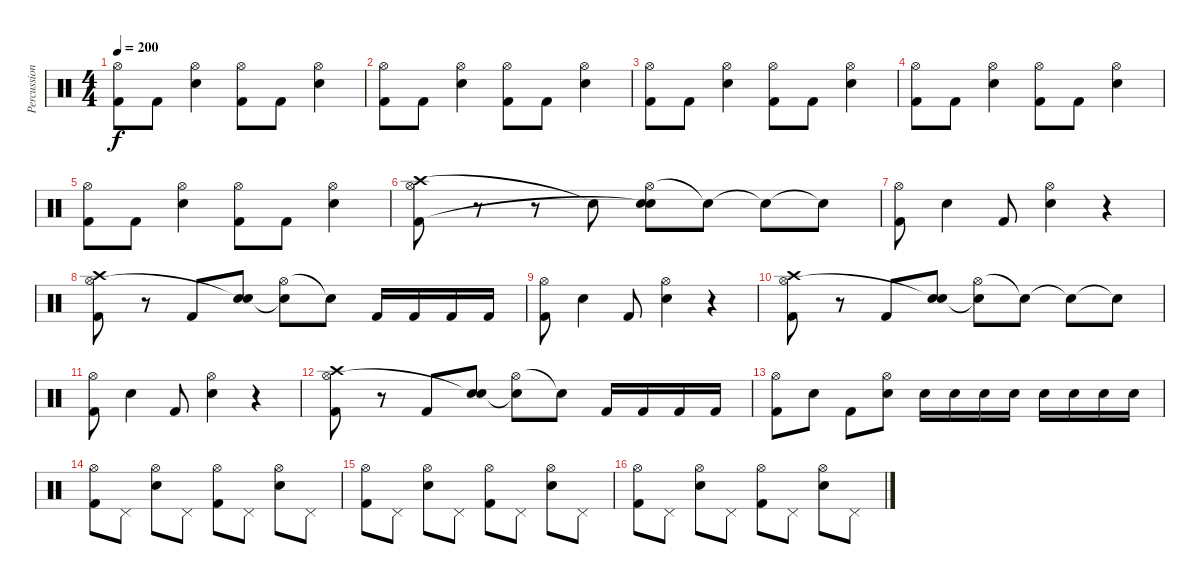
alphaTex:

\track ("Percussion" "Percussion") {instrument percussion}
\staff {score}
\articulation defaults
\ts (4 4)
\tempo 200
\clef neutral
\ks c
("Hi-Hat (open)" "Kick (hit) 2").8{dy f} "Kick (hit) 2".8 ("Hi-Hat (open)" "Electric Snare (hit)").4 ("Hi-Hat (open)" "Kick (hit) 2").8 "Kick (hit) 2".8 ("Hi-Hat (open)" "Electric Snare (hit)").4 |
("Hi-Hat (open)" "Kick (hit) 2").8 "Kick (hit) 2".8 ("Hi-Hat (open)" "Electric Snare (hit)").4 ("Hi-Hat (open)" "Kick (hit) 2").8 "Kick (hit) 2".8 ("Hi-Hat (open)" "Electric Snare (hit)").4 |
("Hi-Hat (open)" "Kick (hit) 2").8 "Kick (hit) 2".8 ("Hi-Hat (open)" "Electric Snare (hit)").4 ("Hi-Hat (open)" "Kick (hit) 2").8 "Kick (hit) 2".8 ("Hi-Hat (open)" "Electric Snare (hit)").4 |
("Hi-Hat (open)" "Kick (hit) 2").8 "Kick (hit) 2".8 ("Hi-Hat (open)" "Electric Snare (hit)").4 ("Hi-Hat (open)" "Kick (hit) 2").8 "Kick (hit) 2".8 ("Hi-Hat (open)" "Electric Snare (hit)").4 |
("Hi-Hat (open)" "Kick (hit) 2").8 "Kick (hit) 2".8 ("Hi-Hat (open)" "Electric Snare (hit)").4 ("Hi-Hat (open)" "Kick (hit) 2").8 "Kick (hit) 2".8 ("Hi-Hat (open)" "Electric Snare (hit)").4 |
("Crash high (hit)" "Hi-Hat (open)" "Kick (hit) 2").8 r.8 r.8 "Electric Snare (hit)"{t}.8 ("Hi-Hat (open)" "Electric Snare (hit)" "Snare (hit)"{t}).8 "Snare (hit)"{t}.8 "Snare (hit)"{t}.8 "Snare (hit)"{t}.8 |
("Hi-Hat (open)" "Kick (hit) 2").8 "Electric Snare (hit)".4 "Kick (hit) 2".8 ("Hi-Hat (open)" "Electric Snare (hit)").4 r.4 |
("Crash high (hit)" "Hi-Hat (open)" "Kick (hit) 2").8 r.8 "Kick (hit) 2".8 ("Electric Snare (hit)" "Electric Snare (hit)"{t}).8 ("Hi-Hat (open)" "Snare (hit)"{t}).8 "Snare (hit)"{t}.8 "Kick (hit) 2".16 "Kick (hit) 2".16 "Kick (hit) 2".16 "Kick (hit) 2".16 |
("Hi-Hat (open)" "Kick (hit) 2").8 "Electric Snare (hit)".4 "Kick (hit) 2".8 ("Hi-Hat (open)" "Electric Snare (hit)").4 r.4 |
("Crash high (hit)" "Hi-Hat (open)" "Kick (hit) 2").8 r.8 "Kick (hit) 2".8 ("Electric Snare (hit)" "Electric Snare (hit)"{t}).8 ("Hi-Hat (open)" "Snare (hit)"{t}).8 "Snare (hit)"{t}.8 "Snare (hit)"{t}.8 "Snare (hit)"{t}.8 |
("Hi-Hat (open)" "Kick (hit) 2").8 "Electric Snare (hit)".4 "Kick (hit) 2".8 ("Hi-Hat (open)" "Electric Snare (hit)").4 r.4 |
("Crash high (hit)" "Hi-Hat (open)" "Kick (hit) 2").8 r.8 "Kick (hit) 2".8 ("Electric Snare (hit)" "Electric Snare (hit)"{t}).8 ("Hi-Hat (open)" "Snare (hit)"{t}).8 "Snare (hit)"{t}.8 "Kick (hit) 2".16 "Kick (hit) 2".16 "Kick (hit) 2".16 "Kick (hit) 2".16 |
("Hi-Hat (open)" "Kick (hit) 2").8 "Electric Snare (hit)".8 "Kick (hit) 2".8 ("Hi-Hat (open)" "Electric Snare (hit)").8 "Electric Snare (hit)".16 "Electric Snare (hit)".16 "Electric Snare (hit)".16 "Electric Snare (hit)".16 "Electric Snare (hit)".16 "Electric Snare (hit)".16 "Electric Snare (hit)".16 "Electric Snare (hit)".16 |
("Hi-Hat (open)" "Kick (hit) 2").8 "Pedal Hi-Hat (hit)".8 ("Hi-Hat (open)" "Electric Snare (hit)").8 "Pedal Hi-Hat (hit)".8 ("Hi-Hat (open)" "Kick (hit) 2").8 "Pedal Hi-Hat (hit)".8 ("Hi-Hat (open)" "Electric Snare (hit)").8 "Pedal Hi-Hat (hit)".8 |
("Hi-Hat (open)" "Kick (hit) 2").8 "Pedal Hi-Hat (hit)".8 ("Hi-Hat (open)" "Electric Snare (hit)").8 "Pedal Hi-Hat (hit)".8 ("Hi-Hat (open)" "Kick (hit) 2").8 "Pedal Hi-Hat (hit)".8 ("Hi-Hat (open)" "Electric Snare (hit)").8 "Pedal Hi-Hat (hit)".8 |
("Hi-Hat (open)" "Kick (hit) 2").8 "Pedal Hi-Hat (hit)".8 ("Hi-Hat (open)" "Electric Snare (hit)").8 "Pedal Hi-Hat (hit)".8 ("Hi-Hat (open)" "Kick (hit) 2").8 "Pedal Hi-Hat (hit)".8 ("Hi-Hat (open)" "Electric Snare (hit)").8 "Pedal Hi-Hat (hit)".8
